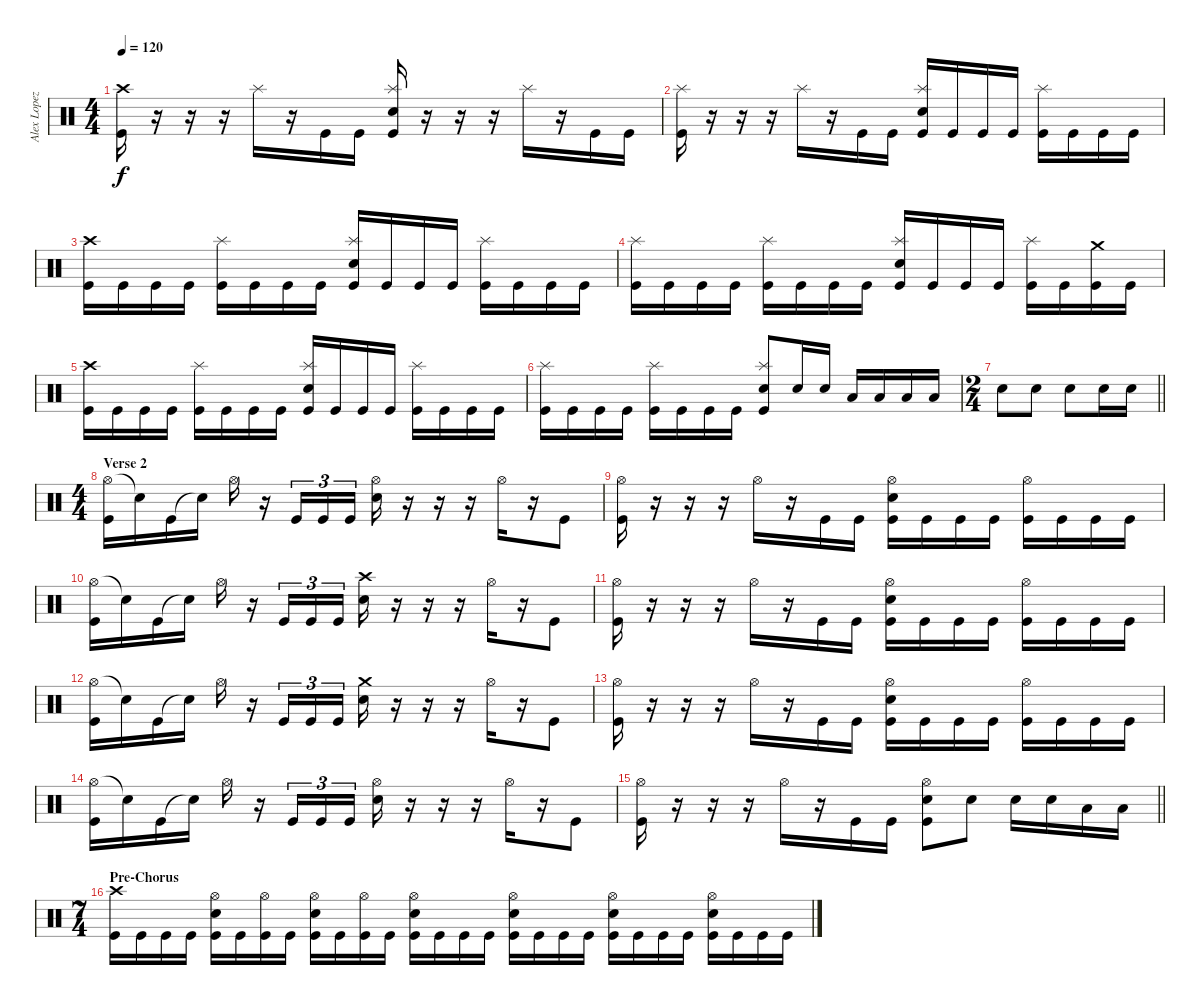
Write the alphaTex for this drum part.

\track ("Alex Lopez - Drums" "Alex Lopez") {instrument percussion}
\staff {score}
\articulation defaults
\ts (4 4)
\tempo 120
\clef neutral
\ks c
("Crash high (hit)" "Kick (hit)").16{dy f} r.16 r.16 r.16 "Splash (hit)".16 r.16 "Kick (hit)".16 "Kick (hit)".16 ("Splash (hit)" "Electric Snare (hit)" "Kick (hit)").16 r.16 r.16 r.16 "Splash (hit)".16 r.16 "Kick (hit)".16 "Kick (hit)".16 |
("Splash (hit)" "Kick (hit)").16 r.16 r.16 r.16 "Splash (hit)".16 r.16 "Kick (hit)".16 "Kick (hit)".16 ("Splash (hit)" "Electric Snare (hit)" "Kick (hit)").16 "Kick (hit)".16 "Kick (hit)".16 "Kick (hit)".16 ("Splash (hit)" "Kick (hit)").16 "Kick (hit)".16 "Kick (hit)".16 "Kick (hit)".16 |
("Crash high (hit)" "Kick (hit)").16 "Kick (hit)".16 "Kick (hit)".16 "Kick (hit)".16 ("Splash (hit)" "Kick (hit)").16 "Kick (hit)".16 "Kick (hit)".16 "Kick (hit)".16 ("Splash (hit)" "Electric Snare (hit)" "Kick (hit)").16 "Kick (hit)".16 "Kick (hit)".16 "Kick (hit)".16 ("Splash (hit)" "Kick (hit)").16 "Kick (hit)".16 "Kick (hit)".16 "Kick (hit)".16 |
("Splash (hit)" "Kick (hit)").16 "Kick (hit)".16 "Kick (hit)".16 "Kick (hit)".16 ("Splash (hit)" "Kick (hit)").16 "Kick (hit)".16 "Kick (hit)".16 "Kick (hit)".16 ("Splash (hit)" "Electric Snare (hit)" "Kick (hit)").16 "Kick (hit)".16 "Kick (hit)".16 "Kick (hit)".16 ("Splash (hit)" "Kick (hit)").16 "Kick (hit)".16 ("Crash medium (hit)" "Kick (hit)").16 "Kick (hit)".16 |
("Crash high (hit)" "Kick (hit)").16 "Kick (hit)".16 "Kick (hit)".16 "Kick (hit)".16 ("Splash (hit)" "Kick (hit)").16 "Kick (hit)".16 "Kick (hit)".16 "Kick (hit)".16 ("Splash (hit)" "Electric Snare (hit)" "Kick (hit)").16 "Kick (hit)".16 "Kick (hit)".16 "Kick (hit)".16 ("Splash (hit)" "Kick (hit)").16 "Kick (hit)".16 "Kick (hit)".16 "Kick (hit)".16 |
("Splash (hit)" "Kick (hit)").16 "Kick (hit)".16 "Kick (hit)".16 "Kick (hit)".16 ("Splash (hit)" "Kick (hit)").16 "Kick (hit)".16 "Kick (hit)".16 "Kick (hit)".16 ("Splash (hit)" "Electric Snare (hit)" "Kick (hit)").8 "Snare (hit) 2".16 "Snare (hit) 2".16 "Low Tom (hit)".16 "Low Tom (hit)".16 "Low Floor Tom (hit)".16 "Low Floor Tom (hit)".16 |
\ts (2 4)
\barLineRight lightlight "Snare (hit) 2".8 "Snare (hit) 2".8 "Snare (hit) 2".8 "Snare (hit) 2".16 "Snare (hit) 2".16
|
\ts (4 4)
\section ("" "Verse 2")
("Hi-Hat (open)" "Kick (hit)").16{volume 13} "Snare (hit)"{t}.16 "Kick (hit)".16 "Snare (hit)"{t}.16 "Hi-Hat (open)".16 r.16 "Kick (hit)".16{tu (3 2)} "Kick (hit)".16{tu (3 2)} "Kick (hit)".16{tu (3 2)} ("Hi-Hat (open)" "Electric Snare (hit)").16 r.16 r.16 r.16 "Hi-Hat (open)".16 r.16 "Kick (hit)".8 |
("Hi-Hat (open)" "Kick (hit)").16 r.16 r.16 r.16 "Hi-Hat (open)".16 r.16 "Kick (hit)".16 "Kick (hit)".16 ("Hi-Hat (open)" "Electric Snare (hit)" "Kick (hit)").16 "Kick (hit)".16 "Kick (hit)".16 "Kick (hit)".16 ("Hi-Hat (open)" "Kick (hit)").16 "Kick (hit)".16 "Kick (hit)".16 "Kick (hit)".16 |
("Hi-Hat (open)" "Kick (hit)").16{volume 13} "Snare (hit)"{t}.16 "Kick (hit)".16 "Snare (hit)"{t}.16 "Hi-Hat (open)".16 r.16 "Kick (hit)".16{tu (3 2)} "Kick (hit)".16{tu (3 2)} "Kick (hit)".16{tu (3 2)} ("Crash high (hit)" "Electric Snare (hit)").16 r.16 r.16 r.16 "Hi-Hat (open)".16 r.16 "Kick (hit)".8 |
("Hi-Hat (open)" "Kick (hit)").16 r.16 r.16 r.16 "Hi-Hat (open)".16 r.16 "Kick (hit)".16 "Kick (hit)".16 ("Hi-Hat (open)" "Electric Snare (hit)" "Kick (hit)").16 "Kick (hit)".16 "Kick (hit)".16 "Kick (hit)".16 ("Hi-Hat (open)" "Kick (hit)").16 "Kick (hit)".16 "Kick (hit)".16 "Kick (hit)".16 |
("Hi-Hat (open)" "Kick (hit)").16{volume 13} "Snare (hit)"{t}.16 "Kick (hit)".16 "Snare (hit)"{t}.16 "Hi-Hat (open)".16 r.16 "Kick (hit)".16{tu (3 2)} "Kick (hit)".16{tu (3 2)} "Kick (hit)".16{tu (3 2)} ("Crash medium (hit)" "Electric Snare (hit)").16 r.16 r.16 r.16 "Hi-Hat (open)".16 r.16 "Kick (hit)".8 |
("Hi-Hat (open)" "Kick (hit)").16 r.16 r.16 r.16 "Hi-Hat (open)".16 r.16 "Kick (hit)".16 "Kick (hit)".16 ("Hi-Hat (open)" "Electric Snare (hit)" "Kick (hit)").16 "Kick (hit)".16 "Kick (hit)".16 "Kick (hit)".16 ("Hi-Hat (open)" "Kick (hit)").16 "Kick (hit)".16 "Kick (hit)".16 "Kick (hit)".16 |
("Hi-Hat (open)" "Kick (hit)").16{volume 13} "Snare (hit)"{t}.16 "Kick (hit)".16 "Snare (hit)"{t}.16 "Hi-Hat (open)".16 r.16 "Kick (hit)".16{tu (3 2)} "Kick (hit)".16{tu (3 2)} "Kick (hit)".16{tu (3 2)} ("Hi-Hat (open)" "Electric Snare (hit)").16 r.16 r.16 r.16 "Hi-Hat (open)".16 r.16 "Kick (hit)".8 |
\barLineRight lightlight
("Hi-Hat (open)" "Kick (hit)").16 r.16 r.16 r.16 "Hi-Hat (open)".16 r.16 "Kick (hit)".16 "Kick (hit)".16 ("Hi-Hat (open)" "Electric Snare (hit)" "Kick (hit)").8 "Electric Snare (hit)".8 "Electric Snare (hit)".16 "Electric Snare (hit)".16 "Low Floor Tom (hit)".16 "Low Floor Tom (hit)".16 |
\ts (7 4)
\section ("" "Pre-Chorus")
("Crash high (hit)" "Kick (hit)").16 "Kick (hit)".16 "Kick (hit)".16 "Kick (hit)".16 ("Hi-Hat (open)" "Electric Snare (hit)" "Kick (hit)").16 "Kick (hit)".16 ("Hi-Hat (open)" "Kick (hit)").16 "Kick (hit)".16 ("Hi-Hat (open)" "Electric Snare (hit)" "Kick (hit)").16 "Kick (hit)".16 ("Hi-Hat (open)" "Kick (hit)").16 "Kick (hit)".16 ("Hi-Hat (open)" "Electric Snare (hit)" "Kick (hit)").16 "Kick (hit)".16 "Kick (hit)".16 "Kick (hit)".16 ("Hi-Hat (open)" "Electric Snare (hit)" "Kick (hit)").16 "Kick (hit)".16 "Kick (hit)".16 "Kick (hit)".16 ("Hi-Hat (open)" "Electric Snare (hit)" "Kick (hit)").16 "Kick (hit)".16 "Kick (hit)".16 "Kick (hit)".16 ("Hi-Hat (open)" "Electric Snare (hit)" "Kick (hit)").16 "Kick (hit)".16 "Kick (hit)".16 "Kick (hit)".16
